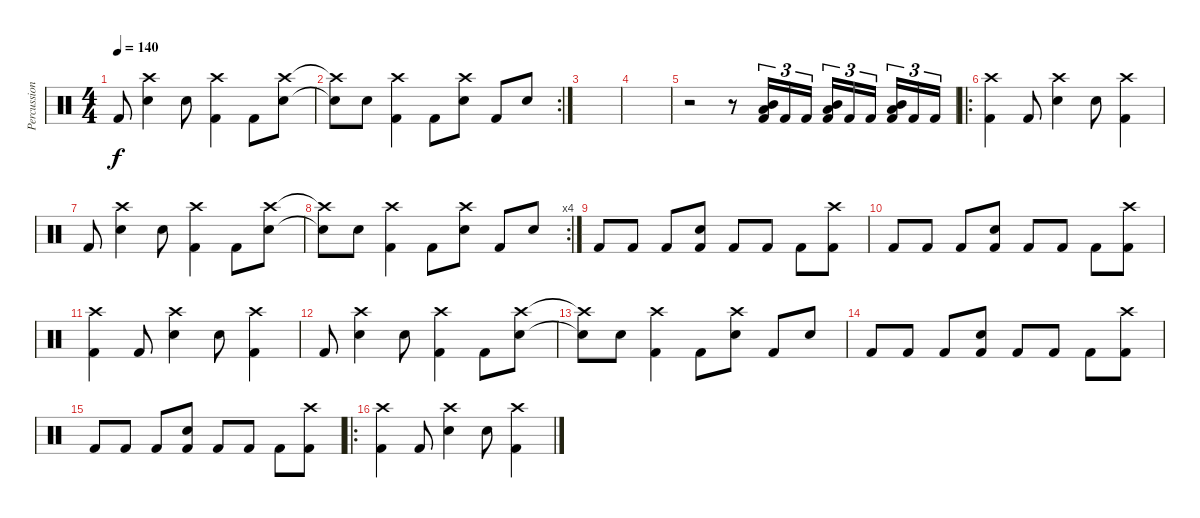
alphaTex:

\track ("Percussion" "Percussion") {instrument percussion}
\staff {score}
\articulation defaults
\ts (4 4)
\tempo 140
\clef neutral
\ks c "Kick (hit) 2".8{dy f}
("Crash high (hit)" "Electric Snare (hit)").4 "Electric Snare (hit)".8 ("Crash high (hit)" "Kick (hit) 2").4 "Kick (hit) 2".8 ("Crash high (hit)" "Electric Snare (hit)").8 |
\rc 2
("Crash high (hit)"{t} "Snare (hit)"{t}).8 "Electric Snare (hit)".8 ("Crash high (hit)" "Kick (hit) 2").4 "Kick (hit) 2".8 ("Crash high (hit)" "Electric Snare (hit)").8 "Kick (hit) 2".8 "Electric Snare (hit)".8 |
|
|
r.2 r.8 ("Mid Tom (hit)" "Low Floor Tom (hit)" "Kick (hit) 2").16{tu (3 2)} "Kick (hit) 2".16{tu (3 2)} "Kick (hit) 2".16{tu (3 2)} ("Mid Tom (hit)" "Low Floor Tom (hit)" "Kick (hit) 2").16{tu (3 2)} "Kick (hit) 2".16{tu (3 2)} "Kick (hit) 2".16{tu (3 2)} ("Mid Tom (hit)" "Low Floor Tom (hit)" "Kick (hit) 2").16{tu (3 2)} "Kick (hit) 2".16{tu (3 2)} "Kick (hit) 2".16{tu (3 2)} |
\ro
("Crash high (hit)" "Kick (hit) 2").4 "Kick (hit) 2".8 ("Crash high (hit)" "Electric Snare (hit)").4 "Electric Snare (hit)".8 ("Crash high (hit)" "Kick (hit) 2").4 |
"Kick (hit) 2".8 ("Crash high (hit)" "Electric Snare (hit)").4 "Electric Snare (hit)".8 ("Crash high (hit)" "Kick (hit) 2").4 "Kick (hit) 2".8 ("Crash high (hit)" "Electric Snare (hit)").8 |
\rc 4
("Crash high (hit)"{t} "Snare (hit)"{t}).8 "Electric Snare (hit)".8 ("Crash high (hit)" "Kick (hit) 2").4 "Kick (hit) 2".8 ("Crash high (hit)" "Electric Snare (hit)").8 "Kick (hit) 2".8 "Electric Snare (hit)".8 |
"Kick (hit) 2".8 "Kick (hit) 2".8 "Kick (hit) 2".8 ("Electric Snare (hit)" "Kick (hit) 2").8 "Kick (hit) 2".8 "Kick (hit) 2".8 "Kick (hit) 2".8 ("Crash high (hit)" "Kick (hit) 2").8 |
"Kick (hit) 2".8 "Kick (hit) 2".8 "Kick (hit) 2".8 ("Electric Snare (hit)" "Kick (hit) 2").8 "Kick (hit) 2".8 "Kick (hit) 2".8 "Kick (hit) 2".8 ("Crash high (hit)" "Kick (hit) 2").8 |
("Crash high (hit)" "Kick (hit) 2").4 "Kick (hit) 2".8 ("Crash high (hit)" "Electric Snare (hit)").4 "Electric Snare (hit)".8 ("Crash high (hit)" "Kick (hit) 2").4 |
"Kick (hit) 2".8 ("Crash high (hit)" "Electric Snare (hit)").4 "Electric Snare (hit)".8 ("Crash high (hit)" "Kick (hit) 2").4 "Kick (hit) 2".8 ("Crash high (hit)" "Electric Snare (hit)").8 |
("Crash high (hit)"{t} "Snare (hit)"{t}).8 "Electric Snare (hit)".8 ("Crash high (hit)" "Kick (hit) 2").4 "Kick (hit) 2".8 ("Crash high (hit)" "Electric Snare (hit)").8 "Kick (hit) 2".8 "Electric Snare (hit)".8 |
"Kick (hit) 2".8 "Kick (hit) 2".8 "Kick (hit) 2".8 ("Electric Snare (hit)" "Kick (hit) 2").8 "Kick (hit) 2".8 "Kick (hit) 2".8 "Kick (hit) 2".8 ("Crash high (hit)" "Kick (hit) 2").8 |
"Kick (hit) 2".8 "Kick (hit) 2".8 "Kick (hit) 2".8 ("Electric Snare (hit)" "Kick (hit) 2").8 "Kick (hit) 2".8 "Kick (hit) 2".8 "Kick (hit) 2".8 ("Crash high (hit)" "Kick (hit) 2").8 |
\ro
("Crash high (hit)" "Kick (hit) 2").4 "Kick (hit) 2".8 ("Crash high (hit)" "Electric Snare (hit)").4 "Electric Snare (hit)".8 ("Crash high (hit)" "Kick (hit) 2").4
